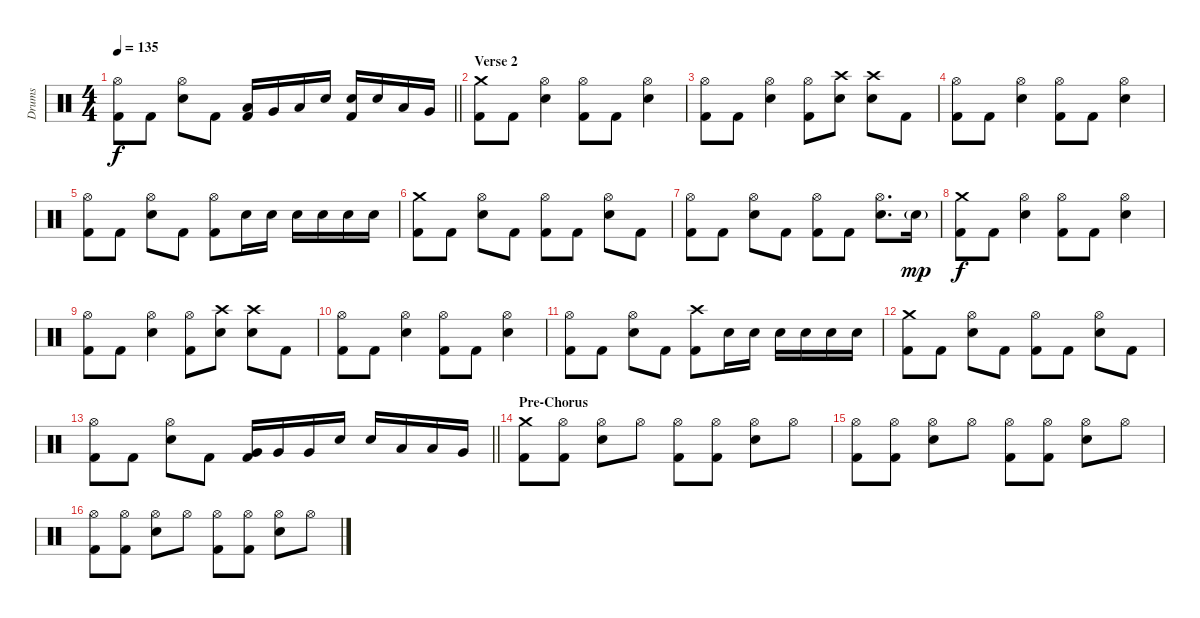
\track ("Drums" "Drums") {instrument percussion}
\staff {score}
\articulation defaults
\ts (4 4)
\tempo 135
\clef neutral
\barLineRight lightlight
\ks c
("Hi-Hat (open)" "Kick (hit) 2").8{dy f} "Kick (hit) 2".8 ("Hi-Hat (open)" "Electric Snare (hit)").8 "Kick (hit) 2".8 ("Low Tom (hit)" "Kick (hit) 2").16 "Very Low Tom (hit)".16 "Low Floor Tom (hit)".16 "Electric Snare (hit)".16 ("Electric Snare (hit)" "Kick (hit) 2").16 "Electric Snare (hit)".16 "Low Tom (hit)".16 "Very Low Tom (hit)".16 |
\section ("" "Verse 2")
("Crash medium (hit)" "Kick (hit) 2").8 "Kick (hit) 2".8 ("Hi-Hat (open)" "Electric Snare (hit)").4 ("Hi-Hat (open)" "Kick (hit) 2").8 "Kick (hit) 2".8 ("Hi-Hat (open)" "Electric Snare (hit)").4 |
("Hi-Hat (open)" "Kick (hit) 2").8 "Kick (hit) 2".8 ("Hi-Hat (open)" "Electric Snare (hit)").4 ("Hi-Hat (open)" "Kick (hit) 2").8 ("Crash high (hit)" "Electric Snare (hit)").8 ("Crash high (hit)" "Electric Snare (hit)").8 "Kick (hit) 2".8 |
("Hi-Hat (open)" "Kick (hit) 2").8 "Kick (hit) 2".8 ("Hi-Hat (open)" "Electric Snare (hit)").4 ("Hi-Hat (open)" "Kick (hit) 2").8 "Kick (hit) 2".8 ("Hi-Hat (open)" "Electric Snare (hit)").4 |
("Hi-Hat (open)" "Kick (hit) 2").8 "Kick (hit) 2".8 ("Hi-Hat (open)" "Electric Snare (hit)").8 "Kick (hit) 2".8 ("Hi-Hat (open)" "Kick (hit) 2").8 "Electric Snare (hit)".16 "Electric Snare (hit)".16 "Electric Snare (hit)".16 "Electric Snare (hit)".16 "Electric Snare (hit)".16 "Electric Snare (hit)".16 |
("Crash medium (hit)" "Kick (hit) 2").8 "Kick (hit) 2".8 ("Hi-Hat (open)" "Electric Snare (hit)").8 "Kick (hit) 2".8 ("Hi-Hat (open)" "Kick (hit) 2").8 "Kick (hit) 2".8 ("Hi-Hat (open)" "Electric Snare (hit)").8 "Kick (hit) 2".8 |
("Hi-Hat (open)" "Kick (hit) 2").8 "Kick (hit) 2".8 ("Hi-Hat (open)" "Electric Snare (hit)").8 "Kick (hit) 2".8 ("Hi-Hat (open)" "Kick (hit) 2").8 "Kick (hit) 2".8 ("Hi-Hat (open)" "Electric Snare (hit)").8{d} "Electric Snare (hit)"{g}.16{dy mp} |
("Crash medium (hit)" "Kick (hit) 2").8{dy f} "Kick (hit) 2".8 ("Hi-Hat (open)" "Electric Snare (hit)").4 ("Hi-Hat (open)" "Kick (hit) 2").8 "Kick (hit) 2".8 ("Hi-Hat (open)" "Electric Snare (hit)").4 |
("Hi-Hat (open)" "Kick (hit) 2").8 "Kick (hit) 2".8 ("Hi-Hat (open)" "Electric Snare (hit)").4 ("Hi-Hat (open)" "Kick (hit) 2").8 ("Crash high (hit)" "Electric Snare (hit)").8 ("Crash high (hit)" "Electric Snare (hit)").8 "Kick (hit) 2".8 |
("Hi-Hat (open)" "Kick (hit) 2").8 "Kick (hit) 2".8 ("Hi-Hat (open)" "Electric Snare (hit)").4 ("Hi-Hat (open)" "Kick (hit) 2").8 "Kick (hit) 2".8 ("Hi-Hat (open)" "Electric Snare (hit)").4 |
("Hi-Hat (open)" "Kick (hit) 2").8 "Kick (hit) 2".8 ("Hi-Hat (open)" "Electric Snare (hit)").8 "Kick (hit) 2".8 ("Crash high (hit)" "Kick (hit) 2").8 "Electric Snare (hit)".16 "Electric Snare (hit)".16 "Electric Snare (hit)".16 "Electric Snare (hit)".16 "Electric Snare (hit)".16 "Electric Snare (hit)".16 |
("Crash medium (hit)" "Kick (hit) 2").8 "Kick (hit) 2".8 ("Hi-Hat (open)" "Electric Snare (hit)").8 "Kick (hit) 2".8 ("Hi-Hat (open)" "Kick (hit) 2").8 "Kick (hit) 2".8 ("Hi-Hat (open)" "Electric Snare (hit)").8 "Kick (hit) 2".8 |
\barLineRight lightlight
("Hi-Hat (open)" "Kick (hit) 2").8 "Kick (hit) 2".8 ("Hi-Hat (open)" "Electric Snare (hit)").8 "Kick (hit) 2".8 ("Very Low Tom (hit)" "Kick (hit) 2").16 "Very Low Tom (hit)".16 "Very Low Tom (hit)".16 "Electric Snare (hit)".16 "Electric Snare (hit)".16 "Low Tom (hit)".16 "Low Tom (hit)".16 "Very Low Tom (hit)".16 |
\section ("" "Pre-Chorus")
("Crash medium (hit)" "Kick (hit) 2").8 ("Hi-Hat (open)" "Kick (hit) 2").8 ("Hi-Hat (open)" "Electric Snare (hit)").8 "Hi-Hat (open)".8 ("Hi-Hat (open)" "Kick (hit) 2").8 ("Hi-Hat (open)" "Kick (hit) 2").8 ("Hi-Hat (open)" "Electric Snare (hit)").8 "Hi-Hat (open)".8 |
("Hi-Hat (open)" "Kick (hit) 2").8 ("Hi-Hat (open)" "Kick (hit) 2").8 ("Hi-Hat (open)" "Electric Snare (hit)").8 "Hi-Hat (open)".8 ("Hi-Hat (open)" "Kick (hit) 2").8 ("Hi-Hat (open)" "Kick (hit) 2").8 ("Hi-Hat (open)" "Electric Snare (hit)").8 "Hi-Hat (open)".8 |
("Hi-Hat (open)" "Kick (hit) 2").8 ("Hi-Hat (open)" "Kick (hit) 2").8 ("Hi-Hat (open)" "Electric Snare (hit)").8 "Hi-Hat (open)".8 ("Hi-Hat (open)" "Kick (hit) 2").8 ("Hi-Hat (open)" "Kick (hit) 2").8 ("Hi-Hat (open)" "Electric Snare (hit)").8 "Hi-Hat (open)".8
